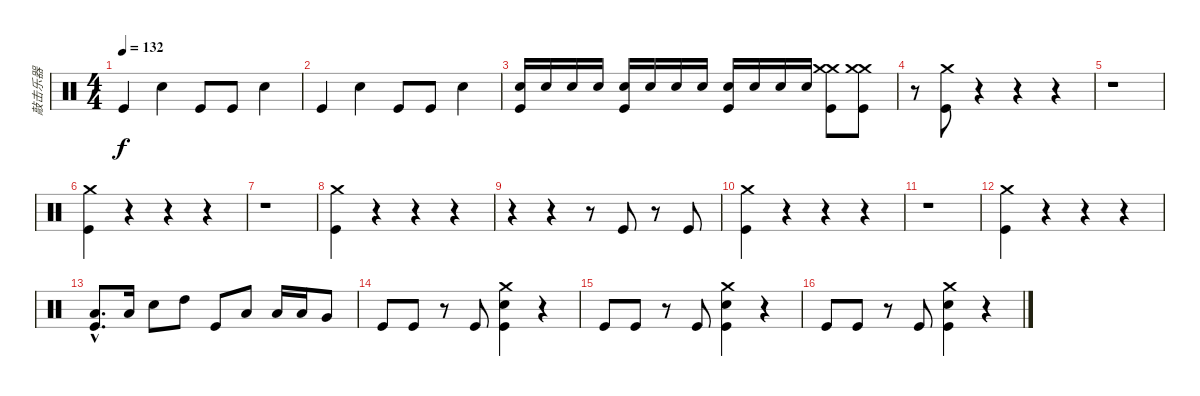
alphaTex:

\track ("敲击乐器" "敲击乐器") {instrument percussion}
\staff {score}
\articulation defaults
\ts (4 4)
\tempo 132
\clef neutral
\ks c "Kick (hit)".4{dy f} "Snare (hit) 2".4 "Kick (hit)".8 "Kick (hit)".8 "Snare (hit) 2".4
|
"Kick (hit)".4 "Snare (hit) 2".4 "Kick (hit)".8 "Kick (hit)".8 "Snare (hit) 2".4 |
("Snare (hit) 2" "Kick (hit)").16 "Snare (hit) 2".16 "Snare (hit) 2".16 "Snare (hit) 2".16 ("Snare (hit) 2" "Kick (hit)").16 "Snare (hit) 2".16 "Snare (hit) 2".16 "Snare (hit) 2".16 ("Snare (hit) 2" "Kick (hit)").16 "Snare (hit) 2".16 "Snare (hit) 2".16 "Snare (hit) 2".16 ("Crash medium (hit)" "Crash medium (hit)" "Kick (hit)").8 ("Crash medium (hit)" "Crash medium (hit)" "Kick (hit)").8 |
r.8 ("Crash medium (hit)" "Kick (hit)").8 r.4 r.4 r.4 |
r.1 |
("Crash medium (hit)" "Kick (hit)").4 r.4 r.4 r.4 |
r.1 |
("Crash medium (hit)" "Kick (hit)").4 r.4 r.4 r.4 |
r.4 r.4 r.8 "Kick (hit)".8 r.8 "Kick (hit)".8 |
("Crash medium (hit)" "Kick (hit)").4 r.4 r.4 r.4 |
r.1 |
("Crash medium (hit)" "Kick (hit)").4 r.4 r.4 r.4 |
("Low Tom (hit)"{hac} "Kick (hit)"{hac}).8{d} "Low Tom (hit)".16 "Snare (hit) 2".8 "High Tom (hit)".8 "Kick (hit)".8 "Low Tom (hit)".8 "Low Tom (hit)".16 "Low Tom (hit)".16 "Very Low Tom (hit)".8 |
"Kick (hit)".8 "Kick (hit)".8 r.8 "Kick (hit)".8 ("Crash medium (hit)" "Snare (hit) 2" "Kick (hit)").4 r.4 |
"Kick (hit)".8 "Kick (hit)".8 r.8 "Kick (hit)".8 ("Crash medium (hit)" "Snare (hit) 2" "Kick (hit)").4 r.4 |
"Kick (hit)".8 "Kick (hit)".8 r.8 "Kick (hit)".8 ("Crash medium (hit)" "Snare (hit) 2" "Kick (hit)").4 r.4
